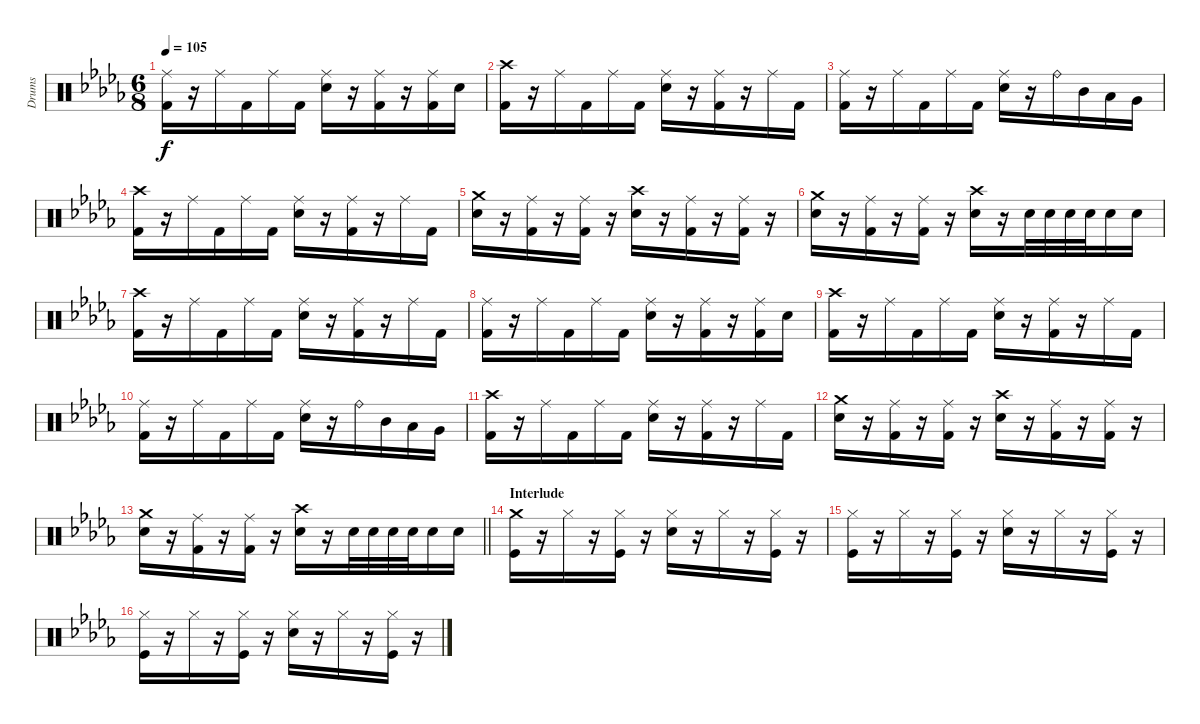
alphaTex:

\track ("Drums" "Drums") {instrument percussion}
\staff {score}
\articulation defaults
\ts (6 8)
\tempo 105
\clef neutral
\ks db
("Ride (middle)" "Kick (hit) 2").16{dy f} r.16 "Ride (middle)".16 "Kick (hit) 2".16 "Ride (middle)".16 "Kick (hit) 2".16 ("Ride (middle)" "Snare (hit) 2").16 r.16 ("Ride (middle)" "Kick (hit) 2").16 r.16 ("Ride (middle)" "Kick (hit) 2").16 "Snare (hit) 2".16 |
("Crash high (hit)" "Kick (hit) 2").16 r.16 "Ride (middle)".16 "Kick (hit) 2".16 "Ride (middle)".16 "Kick (hit) 2".16 ("Ride (middle)" "Snare (hit) 2").16 r.16 ("Ride (middle)" "Kick (hit) 2").16 r.16 "Ride (middle)".16 "Kick (hit) 2".16 |
("Ride (middle)" "Kick (hit) 2").16 r.16 "Ride (middle)".16 "Kick (hit) 2".16 "Ride (middle)".16 "Kick (hit) 2".16 ("Ride (middle)" "Snare (hit) 2").16 r.16 "Ride (bell)".16 "Mid Tom (hit)".16 "Low Tom (hit)".16 "Very Low Tom (hit)".16 |
("Crash high (hit)" "Kick (hit) 2").16 r.16 "Ride (middle)".16 "Kick (hit) 2".16 "Ride (middle)".16 "Kick (hit) 2".16 ("Ride (middle)" "Snare (hit) 2").16 r.16 ("Ride (middle)" "Kick (hit) 2").16 r.16 "Ride (middle)".16 "Kick (hit) 2".16 |
("Crash medium (hit)" "Snare (hit) 2").16 r.16 ("Ride (middle)" "Kick (hit) 2").16 r.16 ("Ride (middle)" "Kick (hit) 2").16 r.16 ("Crash high (hit)" "Snare (hit) 2").16 r.16 ("Ride (middle)" "Kick (hit) 2").16 r.16 ("Ride (middle)" "Kick (hit) 2").16 r.16 |
("Crash medium (hit)" "Snare (hit) 2").16 r.16 ("Ride (middle)" "Kick (hit) 2").16 r.16 ("Ride (middle)" "Kick (hit) 2").16 r.16 ("Crash high (hit)" "Snare (hit) 2").16 r.16 "Snare (hit) 2".32 "Snare (hit) 2".32 "Snare (hit) 2".32 "Snare (hit) 2".32 "Snare (hit) 2".16 "Snare (hit) 2".16 |
("Crash high (hit)" "Kick (hit) 2").16 r.16 "Ride (middle)".16 "Kick (hit) 2".16 "Ride (middle)".16 "Kick (hit) 2".16 ("Ride (middle)" "Snare (hit) 2").16 r.16 ("Ride (middle)" "Kick (hit) 2").16 r.16 "Ride (middle)".16 "Kick (hit) 2".16 |
("Ride (middle)" "Kick (hit) 2").16 r.16 "Ride (middle)".16 "Kick (hit) 2".16 "Ride (middle)".16 "Kick (hit) 2".16 ("Ride (middle)" "Snare (hit) 2").16 r.16 ("Ride (middle)" "Kick (hit) 2").16 r.16 ("Ride (middle)" "Kick (hit) 2").16 "Snare (hit) 2".16 |
("Crash high (hit)" "Kick (hit) 2").16 r.16 "Ride (middle)".16 "Kick (hit) 2".16 "Ride (middle)".16 "Kick (hit) 2".16 ("Ride (middle)" "Snare (hit) 2").16 r.16 ("Ride (middle)" "Kick (hit) 2").16 r.16 "Ride (middle)".16 "Kick (hit) 2".16 |
("Ride (middle)" "Kick (hit) 2").16 r.16 "Ride (middle)".16 "Kick (hit) 2".16 "Ride (middle)".16 "Kick (hit) 2".16 ("Ride (middle)" "Snare (hit) 2").16 r.16 "Ride (bell)".16 "Mid Tom (hit)".16 "Low Tom (hit)".16 "Very Low Tom (hit)".16 |
("Crash high (hit)" "Kick (hit) 2").16 r.16 "Ride (middle)".16 "Kick (hit) 2".16 "Ride (middle)".16 "Kick (hit) 2".16 ("Ride (middle)" "Snare (hit) 2").16 r.16 ("Ride (middle)" "Kick (hit) 2").16 r.16 "Ride (middle)".16 "Kick (hit) 2".16 |
("Crash medium (hit)" "Snare (hit) 2").16 r.16 ("Ride (middle)" "Kick (hit) 2").16 r.16 ("Ride (middle)" "Kick (hit) 2").16 r.16 ("Crash high (hit)" "Snare (hit) 2").16 r.16 ("Ride (middle)" "Kick (hit) 2").16 r.16 ("Ride (middle)" "Kick (hit) 2").16 r.16 |
\barLineRight lightlight
("Crash medium (hit)" "Snare (hit) 2").16 r.16 ("Ride (middle)" "Kick (hit) 2").16 r.16 ("Ride (middle)" "Kick (hit) 2").16 r.16 ("Crash high (hit)" "Snare (hit) 2").16 r.16 "Snare (hit) 2".32 "Snare (hit) 2".32 "Snare (hit) 2".32 "Snare (hit) 2".32 "Snare (hit) 2".16 "Snare (hit) 2".16 |
\section ("" "Interlude")
("Crash medium (hit)" "Kick (hit)").16 r.16 "Hi-Hat (closed)".16 r.16 ("Hi-Hat (closed)" "Kick (hit)").16 r.16 ("Hi-Hat (closed)" "Snare (hit) 2").16 r.16 "Hi-Hat (closed)".16 r.16 ("Hi-Hat (closed)" "Kick (hit)").16 r.16 |
("Hi-Hat (closed)" "Kick (hit)").16 r.16 "Hi-Hat (closed)".16 r.16 ("Hi-Hat (closed)" "Kick (hit)").16 r.16 ("Hi-Hat (closed)" "Snare (hit) 2").16 r.16 "Hi-Hat (closed)".16 r.16 ("Hi-Hat (closed)" "Kick (hit)").16 r.16 |
("Hi-Hat (closed)" "Kick (hit)").16 r.16 "Hi-Hat (closed)".16 r.16 ("Hi-Hat (closed)" "Kick (hit)").16 r.16 ("Hi-Hat (closed)" "Snare (hit) 2").16 r.16 "Hi-Hat (closed)".16 r.16 ("Hi-Hat (closed)" "Kick (hit)").16 r.16
